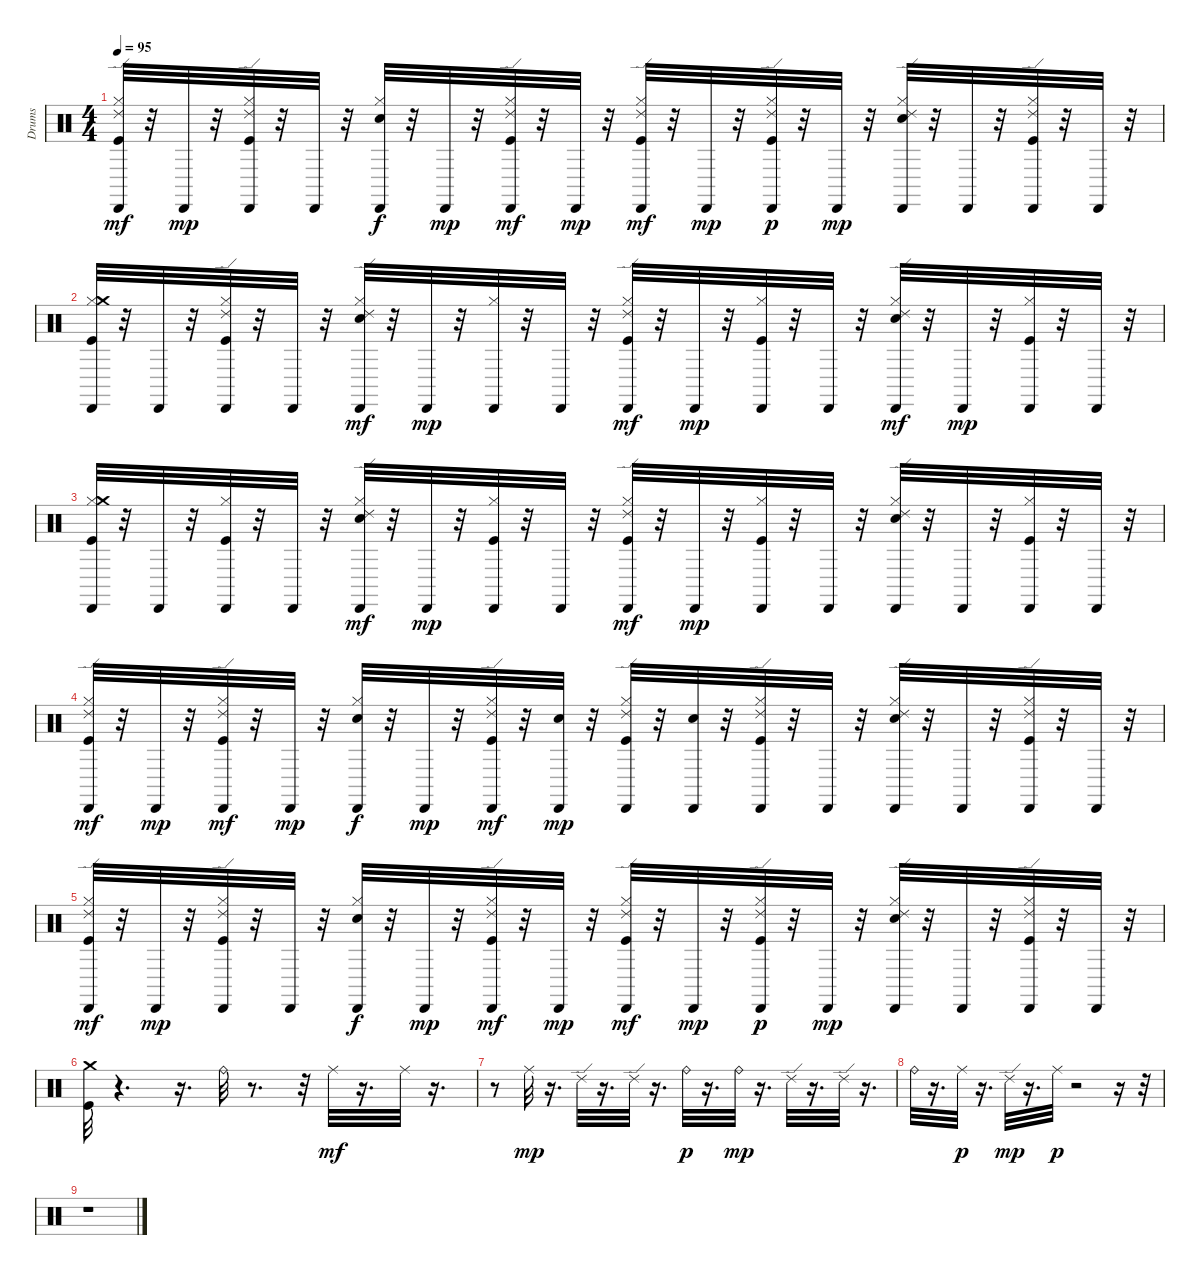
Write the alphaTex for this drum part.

\track ("Drums" "Drums") {instrument percussion}
\staff {score}
\articulation defaults
\ts (4 4)
\tempo 95
\clef neutral
\ks c
("Hi-Hat (closed)" "Kick (hit)" "Cabasa (hit)" "Ride (edge) 2").32{dy mf} r.32 "Cabasa (hit)".32{dy mp} r.32 ("Hi-Hat (closed)" "Kick (hit)" "Cabasa (hit)" "Ride (edge) 2").32 r.32 "Cabasa (hit)".32 r.32 ("Hi-Hat (closed)" "Electric Snare (hit)" "Cabasa (hit)").32{dy f} r.32 "Cabasa (hit)".32{dy mp} r.32 ("Hi-Hat (closed)" "Kick (hit)" "Cabasa (hit)" "Ride (edge) 2").32{dy mf} r.32 "Cabasa (hit)".32{dy mp} r.32 ("Hi-Hat (closed)" "Kick (hit)" "Cabasa (hit)" "Ride (edge) 2").32{dy mf} r.32 "Cabasa (hit)".32{dy mp} r.32 ("Hi-Hat (closed)" "Kick (hit)" "Cabasa (hit)" "Ride (edge) 2").32{dy p} r.32 "Cabasa (hit)".32{dy mp} r.32 ("Hi-Hat (closed)" "Electric Snare (hit)" "Ride (edge) 2" "Cabasa (hit)").32 r.32 "Cabasa (hit)".32 r.32 ("Hi-Hat (closed)" "Kick (hit)" "Cabasa (hit)" "Ride (edge) 2").32 r.32 "Cabasa (hit)".32 r.32 |
("Kick (hit)" "Hi-Hat (closed)" "Crash medium (hit)" "Cabasa (hit)").32 r.32 "Cabasa (hit)".32 r.32 ("Hi-Hat (closed)" "Kick (hit)" "Cabasa (hit)" "Ride (edge) 2").32 r.32 "Cabasa (hit)".32 r.32 ("Hi-Hat (closed)" "Electric Snare (hit)" "Cabasa (hit)" "Ride (edge) 2").32{dy mf} r.32 "Cabasa (hit)".32{dy mp} r.32 ("Hi-Hat (closed)" "Cabasa (hit)").32 r.32 "Cabasa (hit)".32 r.32 ("Hi-Hat (closed)" "Kick (hit)" "Cabasa (hit)" "Ride (edge) 2").32{dy mf} r.32 "Cabasa (hit)".32{dy mp} r.32 ("Hi-Hat (closed)" "Kick (hit)" "Cabasa (hit)").32 r.32 "Cabasa (hit)".32 r.32 ("Hi-Hat (closed)" "Electric Snare (hit)" "Cabasa (hit)" "Ride (edge) 2").32{dy mf} r.32 "Cabasa (hit)".32{dy mp} r.32 ("Hi-Hat (closed)" "Kick (hit)" "Cabasa (hit)").32 r.32 "Cabasa (hit)".32 r.32 |
("Hi-Hat (closed)" "Kick (hit)" "Crash medium (hit)" "Cabasa (hit)").32 r.32 "Cabasa (hit)".32 r.32 ("Hi-Hat (closed)" "Kick (hit)" "Cabasa (hit)").32 r.32 "Cabasa (hit)".32 r.32 ("Hi-Hat (closed)" "Electric Snare (hit)" "Cabasa (hit)" "Ride (edge) 2").32{dy mf} r.32 "Cabasa (hit)".32{dy mp} r.32 ("Hi-Hat (closed)" "Kick (hit)" "Cabasa (hit)").32 r.32 "Cabasa (hit)".32 r.32 ("Hi-Hat (closed)" "Kick (hit)" "Cabasa (hit)" "Ride (edge) 2").32{dy mf} r.32 "Cabasa (hit)".32{dy mp} r.32 ("Hi-Hat (closed)" "Kick (hit)" "Cabasa (hit)").32 r.32 "Cabasa (hit)".32 r.32 ("Hi-Hat (closed)" "Electric Snare (hit)" "Cabasa (hit)" "Ride (edge) 2").32 r.32 "Cabasa (hit)".32 r.32 ("Hi-Hat (closed)" "Kick (hit)" "Cabasa (hit)").32 r.32 "Cabasa (hit)".32 r.32 |
("Kick (hit)" "Hi-Hat (closed)" "Cabasa (hit)" "Ride (edge) 2").32{dy mf} r.32 "Cabasa (hit)".32{dy mp} r.32 ("Hi-Hat (closed)" "Kick (hit)" "Cabasa (hit)" "Ride (edge) 2").32{dy mf} r.32 "Cabasa (hit)".32{dy mp} r.32 ("Hi-Hat (closed)" "Electric Snare (hit)" "Cabasa (hit)").32{dy f} r.32 "Cabasa (hit)".32{dy mp} r.32 ("Hi-Hat (closed)" "Kick (hit)" "Cabasa (hit)" "Ride (edge) 2").32{dy mf} r.32 ("Electric Snare (hit)" "Cabasa (hit)").32{dy mp} r.32 ("Hi-Hat (closed)" "Kick (hit)" "Cabasa (hit)" "Ride (edge) 2").32 r.32 ("Electric Snare (hit)" "Cabasa (hit)").32 r.32 ("Hi-Hat (closed)" "Kick (hit)" "Cabasa (hit)" "Ride (edge) 2").32 r.32 "Cabasa (hit)".32 r.32 ("Hi-Hat (closed)" "Electric Snare (hit)" "Cabasa (hit)" "Ride (edge) 2").32 r.32 "Cabasa (hit)".32 r.32 ("Hi-Hat (closed)" "Cabasa (hit)" "Kick (hit)" "Ride (edge) 2").32 r.32 "Cabasa (hit)".32 r.32 |
("Hi-Hat (closed)" "Kick (hit)" "Cabasa (hit)" "Ride (edge) 2").32{dy mf} r.32 "Cabasa (hit)".32{dy mp} r.32 ("Hi-Hat (closed)" "Kick (hit)" "Cabasa (hit)" "Ride (edge) 2").32 r.32 "Cabasa (hit)".32 r.32 ("Hi-Hat (closed)" "Electric Snare (hit)" "Cabasa (hit)").32{dy f} r.32 "Cabasa (hit)".32{dy mp} r.32 ("Hi-Hat (closed)" "Kick (hit)" "Cabasa (hit)" "Ride (edge) 2").32{dy mf} r.32 "Cabasa (hit)".32{dy mp} r.32 ("Hi-Hat (closed)" "Kick (hit)" "Cabasa (hit)" "Ride (edge) 2").32{dy mf} r.32 "Cabasa (hit)".32{dy mp} r.32 ("Hi-Hat (closed)" "Kick (hit)" "Cabasa (hit)" "Ride (edge) 2").32{dy p} r.32 "Cabasa (hit)".32{dy mp} r.32 ("Hi-Hat (closed)" "Electric Snare (hit)" "Ride (edge) 2" "Cabasa (hit)").32 r.32 "Cabasa (hit)".32 r.32 ("Hi-Hat (closed)" "Kick (hit)" "Cabasa (hit)" "Ride (edge) 2").32 r.32 "Cabasa (hit)".32 r.32 |
("Kick (hit)" "Crash medium (hit)").32 r.4{d} r.16{d} "Ride (bell)".32 r.8{d} r.32 "Ride (middle)".32{dy mf} r.16{d} "Ride (middle)".32 r.16{d} |
r.8 "Ride (middle)".32{dy mp} r.16{d} "Ride (edge) 2".32 r.16{d} "Ride (edge) 2".32 r.16{d} "Ride (bell)".32{dy p} r.16{d} "Ride (bell)".32{dy mp} r.16{d} "Ride (edge) 2".32 r.16{d} "Ride (edge) 2".32 r.16{d} |
"Ride (bell)".32 r.16{d} "Ride (middle)".32{dy p} r.16{d} "Ride (edge) 2".32{dy mp} r.16{d} "Ride (middle)".32{dy p} r.2 r.16 r.32 |
r.1
